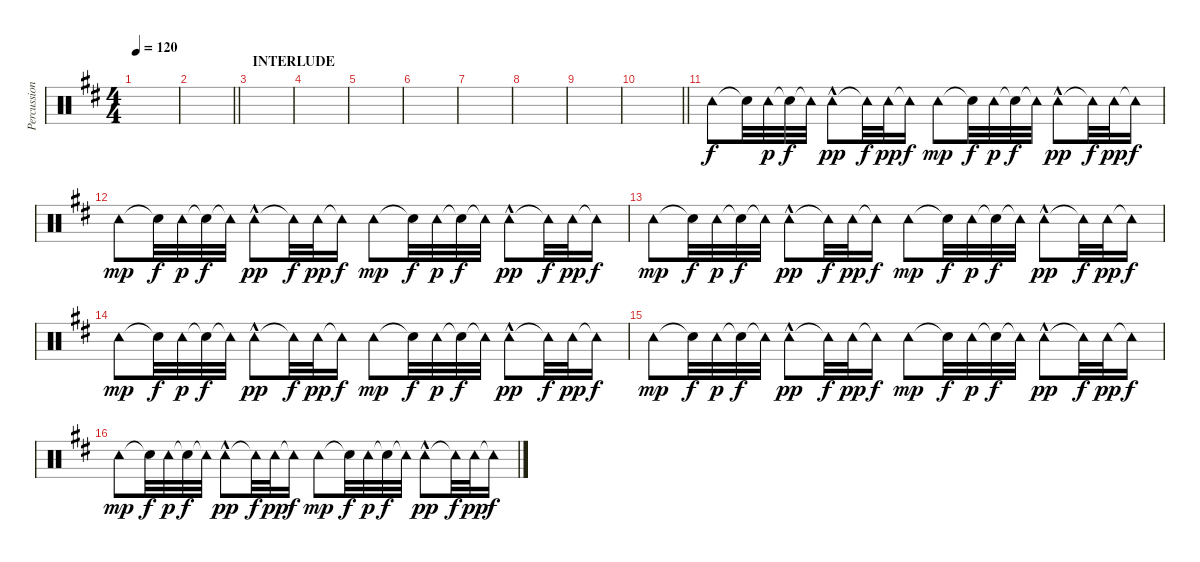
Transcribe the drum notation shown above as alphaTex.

\track ("Percussion" "Percussion") {instrument percussion}
\staff {score}
\articulation defaults
\ts (4 4)
\tempo 120
\clef neutral
\ks d
|
\barLineRight lightlight
|
\section ("" "INTERLUDE")
|
|
|
|
|
|
|
\barLineRight lightlight
|
\section ("" "")
"Tambourine (hit)".8 "Snare (hit)"{t}.32{dy f} "Tambourine (hit)".32{dy p} "Snare (hit)"{t}.32{dy f} "Tambourine (hit)"{t}.32 "Tambourine (hit)"{hac}.8{dy pp} "Tambourine (hit)"{t}.32{dy f} "Tambourine (hit)".32{dy pp} "Tambourine (hit)"{t}.16{dy f} "Tambourine (hit)".8{dy mp} "Snare (hit)"{t}.32{dy f} "Tambourine (hit)".32{dy p} "Snare (hit)"{t}.32{dy f} "Tambourine (hit)"{t}.32 "Tambourine (hit)"{hac}.8{dy pp} "Tambourine (hit)"{t}.32{dy f} "Tambourine (hit)".32{dy pp} "Tambourine (hit)"{t}.16{dy f} |
"Tambourine (hit)".8{dy mp} "Snare (hit)"{t}.32{dy f} "Tambourine (hit)".32{dy p} "Snare (hit)"{t}.32{dy f} "Tambourine (hit)"{t}.32 "Tambourine (hit)"{hac}.8{dy pp} "Tambourine (hit)"{t}.32{dy f} "Tambourine (hit)".32{dy pp} "Tambourine (hit)"{t}.16{dy f} "Tambourine (hit)".8{dy mp} "Snare (hit)"{t}.32{dy f} "Tambourine (hit)".32{dy p} "Snare (hit)"{t}.32{dy f} "Tambourine (hit)"{t}.32 "Tambourine (hit)"{hac}.8{dy pp} "Tambourine (hit)"{t}.32{dy f} "Tambourine (hit)".32{dy pp} "Tambourine (hit)"{t}.16{dy f} |
"Tambourine (hit)".8{dy mp} "Snare (hit)"{t}.32{dy f} "Tambourine (hit)".32{dy p} "Snare (hit)"{t}.32{dy f} "Tambourine (hit)"{t}.32 "Tambourine (hit)"{hac}.8{dy pp} "Tambourine (hit)"{t}.32{dy f} "Tambourine (hit)".32{dy pp} "Tambourine (hit)"{t}.16{dy f} "Tambourine (hit)".8{dy mp} "Snare (hit)"{t}.32{dy f} "Tambourine (hit)".32{dy p} "Snare (hit)"{t}.32{dy f} "Tambourine (hit)"{t}.32 "Tambourine (hit)"{hac}.8{dy pp} "Tambourine (hit)"{t}.32{dy f} "Tambourine (hit)".32{dy pp} "Tambourine (hit)"{t}.16{dy f} |
"Tambourine (hit)".8{dy mp} "Snare (hit)"{t}.32{dy f} "Tambourine (hit)".32{dy p} "Snare (hit)"{t}.32{dy f} "Tambourine (hit)"{t}.32 "Tambourine (hit)"{hac}.8{dy pp} "Tambourine (hit)"{t}.32{dy f} "Tambourine (hit)".32{dy pp} "Tambourine (hit)"{t}.16{dy f} "Tambourine (hit)".8{dy mp} "Snare (hit)"{t}.32{dy f} "Tambourine (hit)".32{dy p} "Snare (hit)"{t}.32{dy f} "Tambourine (hit)"{t}.32 "Tambourine (hit)"{hac}.8{dy pp} "Tambourine (hit)"{t}.32{dy f} "Tambourine (hit)".32{dy pp} "Tambourine (hit)"{t}.16{dy f} |
"Tambourine (hit)".8{dy mp} "Snare (hit)"{t}.32{dy f} "Tambourine (hit)".32{dy p} "Snare (hit)"{t}.32{dy f} "Tambourine (hit)"{t}.32 "Tambourine (hit)"{hac}.8{dy pp} "Tambourine (hit)"{t}.32{dy f} "Tambourine (hit)".32{dy pp} "Tambourine (hit)"{t}.16{dy f} "Tambourine (hit)".8{dy mp} "Snare (hit)"{t}.32{dy f} "Tambourine (hit)".32{dy p} "Snare (hit)"{t}.32{dy f} "Tambourine (hit)"{t}.32 "Tambourine (hit)"{hac}.8{dy pp} "Tambourine (hit)"{t}.32{dy f} "Tambourine (hit)".32{dy pp} "Tambourine (hit)"{t}.16{dy f} |
"Tambourine (hit)".8{dy mp} "Snare (hit)"{t}.32{dy f} "Tambourine (hit)".32{dy p} "Snare (hit)"{t}.32{dy f} "Tambourine (hit)"{t}.32 "Tambourine (hit)"{hac}.8{dy pp} "Tambourine (hit)"{t}.32{dy f} "Tambourine (hit)".32{dy pp} "Tambourine (hit)"{t}.16{dy f} "Tambourine (hit)".8{dy mp} "Snare (hit)"{t}.32{dy f} "Tambourine (hit)".32{dy p} "Snare (hit)"{t}.32{dy f} "Tambourine (hit)"{t}.32 "Tambourine (hit)"{hac}.8{dy pp} "Tambourine (hit)"{t}.32{dy f} "Tambourine (hit)".32{dy pp} "Tambourine (hit)"{t}.16{dy f}
